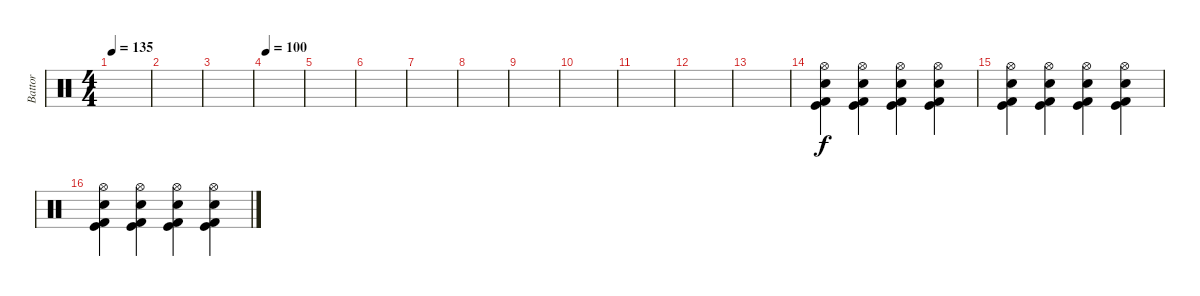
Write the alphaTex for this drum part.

\track ("Battor" "Battor") {instrument percussion}
\staff {score}
\articulation defaults
\ts (4 4)
\tempo 135
\clef neutral
\ks c
|
|
|
\tempo 100
|
|
|
|
|
|
|
|
|
|
("Kick (hit)" "Kick (hit) 2" "Electric Snare (hit)" "Hi-Hat (open)").4 ("Kick (hit)" "Kick (hit) 2" "Electric Snare (hit)" "Hi-Hat (open)").4 ("Kick (hit)" "Kick (hit) 2" "Electric Snare (hit)" "Hi-Hat (open)").4 ("Kick (hit)" "Kick (hit) 2" "Electric Snare (hit)" "Hi-Hat (open)").4 |
("Kick (hit)" "Kick (hit) 2" "Electric Snare (hit)" "Hi-Hat (open)").4 ("Kick (hit)" "Kick (hit) 2" "Electric Snare (hit)" "Hi-Hat (open)").4 ("Kick (hit)" "Kick (hit) 2" "Electric Snare (hit)" "Hi-Hat (open)").4 ("Kick (hit)" "Kick (hit) 2" "Electric Snare (hit)" "Hi-Hat (open)").4 |
("Kick (hit)" "Kick (hit) 2" "Electric Snare (hit)" "Hi-Hat (open)").4 ("Kick (hit)" "Kick (hit) 2" "Electric Snare (hit)" "Hi-Hat (open)").4 ("Kick (hit)" "Kick (hit) 2" "Electric Snare (hit)" "Hi-Hat (open)").4 ("Kick (hit)" "Kick (hit) 2" "Electric Snare (hit)" "Hi-Hat (open)").4
